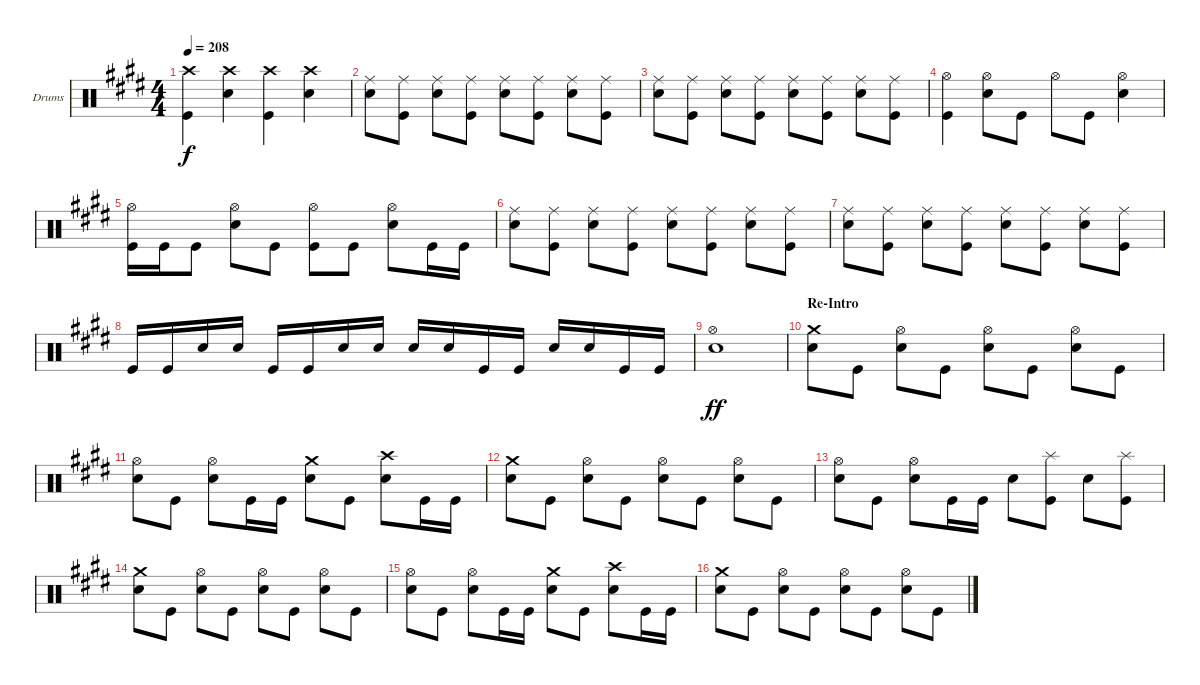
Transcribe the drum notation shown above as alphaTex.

\defaultSystemsLayout 4
\bracketExtendMode groupsimilarinstruments
\firstSystemTrackNameOrientation horizontal
\otherSystemsTrackNameOrientation horizontal
\track ("Corey Friedlander - Drums" "Drums") {instrument percussion}
\staff {score}
\articulation defaults
\ts (4 4)
\tempo 208
\clef neutral
\ks c#minor
("Kick (hit)" "Crash high (hit)").4{dy f} ("Snare (hit) 2" "Crash high (hit)").4 ("Kick (hit)" "Crash high (hit)").4 ("Snare (hit) 2" "Crash high (hit)").4 |
("Snare (hit) 2" "Ride (middle)").8 ("Kick (hit)" "Ride (middle)").8 ("Snare (hit) 2" "Ride (middle)").8 ("Kick (hit)" "Ride (middle)").8 ("Snare (hit) 2" "Ride (middle)").8 ("Kick (hit)" "Ride (middle)").8 ("Snare (hit) 2" "Ride (middle)").8 ("Kick (hit)" "Ride (middle)").8 |
("Snare (hit) 2" "Ride (middle)").8 ("Kick (hit)" "Ride (middle)").8 ("Snare (hit) 2" "Ride (middle)").8 ("Kick (hit)" "Ride (middle)").8 ("Snare (hit) 2" "Ride (middle)").8 ("Kick (hit)" "Ride (middle)").8 ("Snare (hit) 2" "Ride (middle)").8 ("Kick (hit)" "Ride (middle)").8 |
("Kick (hit)" "Hi-Hat (open)").4 ("Snare (hit) 2" "Hi-Hat (open)").8 "Kick (hit)".8 "Hi-Hat (open)".8 "Kick (hit)".8 ("Snare (hit) 2" "Hi-Hat (open)").4 |
("Kick (hit)" "Hi-Hat (open)").16 "Kick (hit)".16 "Kick (hit)".8 ("Snare (hit) 2" "Hi-Hat (open)").8 "Kick (hit)".8 ("Kick (hit)" "Hi-Hat (open)").8 "Kick (hit)".8 ("Snare (hit) 2" "Hi-Hat (open)").8 "Kick (hit)".16 "Kick (hit)".16 |
("Snare (hit) 2" "Ride (middle)").8 ("Kick (hit)" "Ride (middle)").8 ("Snare (hit) 2" "Ride (middle)").8 ("Kick (hit)" "Ride (middle)").8 ("Snare (hit) 2" "Ride (middle)").8 ("Kick (hit)" "Ride (middle)").8 ("Snare (hit) 2" "Ride (middle)").8 ("Kick (hit)" "Ride (middle)").8 |
("Snare (hit) 2" "Ride (middle)").8 ("Kick (hit)" "Ride (middle)").8 ("Snare (hit) 2" "Ride (middle)").8 ("Kick (hit)" "Ride (middle)").8 ("Snare (hit) 2" "Ride (middle)").8 ("Kick (hit)" "Ride (middle)").8 ("Snare (hit) 2" "Ride (middle)").8 ("Kick (hit)" "Ride (middle)").8 |
"Kick (hit)".16 "Kick (hit)".16 "Snare (hit) 2".16 "Snare (hit) 2".16 "Kick (hit)".16 "Kick (hit)".16 "Snare (hit) 2".16 "Snare (hit) 2".16 "Snare (hit) 2".16 "Snare (hit) 2".16 "Kick (hit)".16 "Kick (hit)".16 "Snare (hit) 2".16 "Snare (hit) 2".16 "Kick (hit)".16 "Kick (hit)".16 |
("Snare (hit) 2" "Hi-Hat (open)").1{dy ff} |
\section ("" "Re-Intro")
("Snare (hit) 2" "Crash medium (hit)").8 "Kick (hit)".8 ("Snare (hit) 2" "Hi-Hat (open)").8 "Kick (hit)".8 ("Snare (hit) 2" "Hi-Hat (open)").8 "Kick (hit)".8 ("Snare (hit) 2" "Hi-Hat (open)").8 "Kick (hit)".8 |
("Snare (hit) 2" "Hi-Hat (open)").8 "Kick (hit)".8 ("Snare (hit) 2" "Hi-Hat (open)").8 "Kick (hit)".16 "Kick (hit)".16 ("Snare (hit) 2" "Crash medium (hit)").8 "Kick (hit)".8 ("Snare (hit) 2" "Crash high (hit)").8 "Kick (hit)".16 "Kick (hit)".16 |
("Snare (hit) 2" "Crash medium (hit)").8 "Kick (hit)".8 ("Snare (hit) 2" "Hi-Hat (open)").8 "Kick (hit)".8 ("Snare (hit) 2" "Hi-Hat (open)").8 "Kick (hit)".8 ("Snare (hit) 2" "Hi-Hat (open)").8 "Kick (hit)".8 |
("Snare (hit) 2" "Hi-Hat (open)").8 "Kick (hit)".8 ("Snare (hit) 2" "Hi-Hat (open)").8 "Kick (hit)".16 "Kick (hit)".16 "Snare (hit) 2".8 ("Kick (hit)" "Splash (hit)").8 "Snare (hit) 2".8 ("Kick (hit)" "Splash (hit)").8 |
("Snare (hit) 2" "Crash medium (hit)").8 "Kick (hit)".8 ("Snare (hit) 2" "Hi-Hat (open)").8 "Kick (hit)".8 ("Snare (hit) 2" "Hi-Hat (open)").8 "Kick (hit)".8 ("Snare (hit) 2" "Hi-Hat (open)").8 "Kick (hit)".8 |
("Snare (hit) 2" "Hi-Hat (open)").8 "Kick (hit)".8 ("Snare (hit) 2" "Hi-Hat (open)").8 "Kick (hit)".16 "Kick (hit)".16 ("Snare (hit) 2" "Crash medium (hit)").8 "Kick (hit)".8 ("Snare (hit) 2" "Crash high (hit)").8 "Kick (hit)".16 "Kick (hit)".16 |
("Snare (hit) 2" "Crash medium (hit)").8 "Kick (hit)".8 ("Snare (hit) 2" "Hi-Hat (open)").8 "Kick (hit)".8 ("Snare (hit) 2" "Hi-Hat (open)").8 "Kick (hit)".8 ("Snare (hit) 2" "Hi-Hat (open)").8 "Kick (hit)".8
